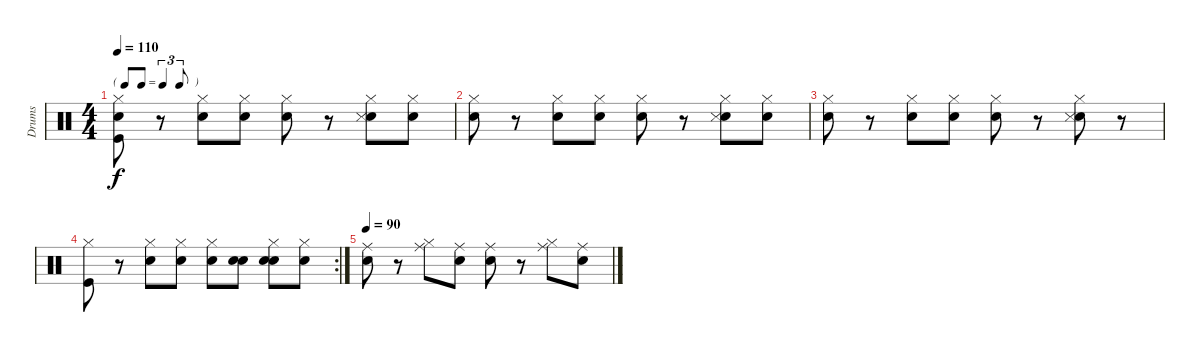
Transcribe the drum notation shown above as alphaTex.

\track ("Drums " "Drums ") {instrument percussion}
\staff {score}
\articulation defaults
\ts (4 4)
\tf triplet8th
\tempo 110
\clef neutral
\ks c
("Snare (hit)" "Kick (hit)" "Hi-Hat (closed)").8{dy f} r.8 ("Snare (hit) 2" "Hi-Hat (closed)").8 ("Snare (hit)" "Hi-Hat (closed)").8 ("Snare (hit)" "Hi-Hat (closed)").8 r.8 ("Snare (hit) 2" "Hi-Hat (closed)" "Snare (side stick) 3").8 ("Snare (hit)" "Hi-Hat (closed)").8 |
("Snare (hit)" "Hi-Hat (closed)").8 r.8 ("Snare (hit) 2" "Hi-Hat (closed)").8 ("Snare (hit)" "Hi-Hat (closed)").8 ("Snare (hit)" "Hi-Hat (closed)").8 r.8 ("Snare (hit) 2" "Hi-Hat (closed)" "Snare (side stick) 3").8 ("Snare (hit)" "Hi-Hat (closed)").8 |
("Snare (hit)" "Hi-Hat (closed)").8 r.8 ("Snare (hit) 2" "Hi-Hat (closed)").8 ("Snare (hit)" "Hi-Hat (closed)").8 ("Snare (hit)" "Hi-Hat (closed)").8 r.8 ("Snare (hit) 2" "Hi-Hat (closed)" "Snare (side stick) 3").8 r.8 |
\rc 2
("Kick (hit)" "Hi-Hat (closed)").8 r.8 ("Snare (hit) 2" "Hi-Hat (closed)").8 ("Snare (hit)" "Hi-Hat (closed)").8 ("Snare (hit)" "Hi-Hat (closed)").8 ("Snare (hit)" "Snare (hit) 2").8 ("Snare (hit)" "Snare (hit) 2" "Hi-Hat (closed)").8 ("Snare (hit)" "Hi-Hat (closed)").8 |
\tempo 90
("Snare (hit)" "Ride (middle)").8 r.8 ("Hi-Hat (closed)" "Ride (middle)").8 ("Snare (hit)" "Ride (middle)").8 ("Snare (hit)" "Ride (middle)").8 r.8 ("Hi-Hat (closed)" "Ride (middle)").8 ("Snare (hit)" "Ride (middle)").8
